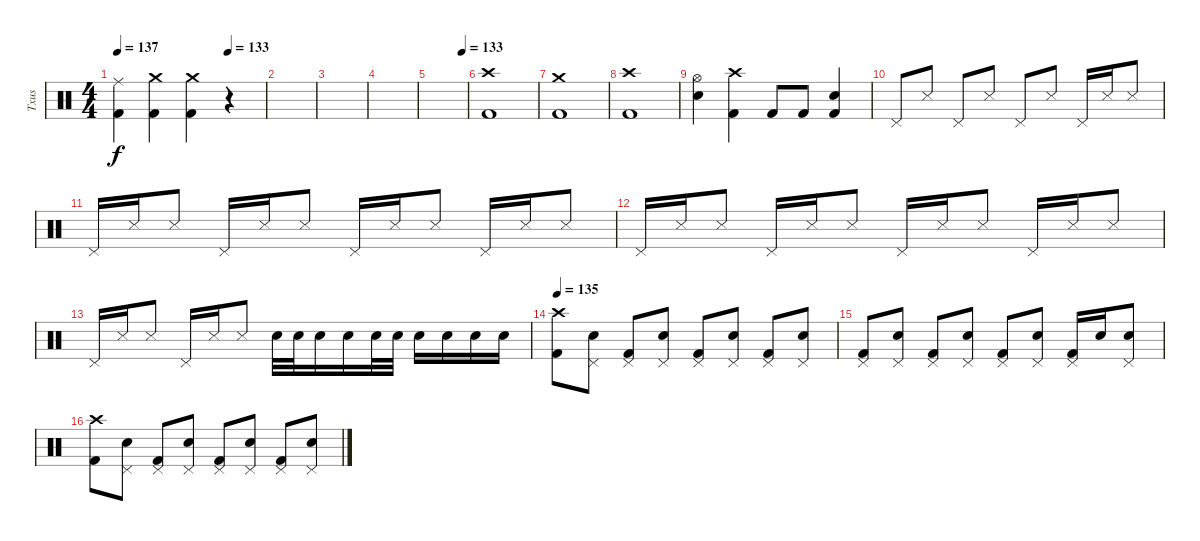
\track ("Txus" "Txus") {instrument percussion}
\staff {score}
\articulation defaults
\ts (4 4)
\tempo 137
\tempo (133 0.75)
\clef neutral
\ks c
("Kick (hit) 2" "Ride (middle)").4{dy f} ("Kick (hit) 2" "Crash medium (hit)").4 ("Kick (hit) 2" "Crash medium (hit)").4 r.4 |
\section ("" "")
|
|
|
\tempo (133 0.875)
|
("Kick (hit) 2" "Crash high (hit)").1 |
("Kick (hit) 2" "Crash medium (hit)").1 |
("Kick (hit) 2" "Crash high (hit)").1 |
("Electric Snare (hit)" "Hi-Hat (open)").4 ("Kick (hit) 2" "Crash high (hit)").4 "Kick (hit) 2".8 "Kick (hit) 2".8 ("Kick (hit) 2" "Electric Snare (hit)").4 |
\section ("" "")
"Pedal Hi-Hat (hit)".8 "Metronome (hit)".8 "Pedal Hi-Hat (hit)".8 "Metronome (hit)".8 "Pedal Hi-Hat (hit)".8 "Metronome (hit)".8 "Pedal Hi-Hat (hit)".16 "Snare (side stick) 3".16 "Snare (side stick) 3".8 |
"Pedal Hi-Hat (hit)".16 "Metronome (hit)".16 "Metronome (hit)".8 "Pedal Hi-Hat (hit)".16 "Metronome (hit)".16 "Metronome (hit)".8 "Pedal Hi-Hat (hit)".16 "Metronome (hit)".16 "Metronome (hit)".8 "Pedal Hi-Hat (hit)".16 "Snare (side stick) 3".16 "Snare (side stick) 3".8 |
"Pedal Hi-Hat (hit)".16 "Metronome (hit)".16 "Metronome (hit)".8 "Pedal Hi-Hat (hit)".16 "Metronome (hit)".16 "Metronome (hit)".8 "Pedal Hi-Hat (hit)".16 "Metronome (hit)".16 "Metronome (hit)".8 "Pedal Hi-Hat (hit)".16 "Snare (side stick) 3".16 "Snare (side stick) 3".8 |
"Pedal Hi-Hat (hit)".16 "Metronome (hit)".16 "Metronome (hit)".8 "Pedal Hi-Hat (hit)".16 "Metronome (hit)".16 "Metronome (hit)".8 "Electric Snare (hit)".32 "Electric Snare (hit)".32 "Electric Snare (hit)".16 "Electric Snare (hit)".16 "Electric Snare (hit)".32 "Electric Snare (hit)".32 "Electric Snare (hit)".16 "Electric Snare (hit)".16 "Electric Snare (hit)".16 "Electric Snare (hit)".16 |
\tempo 135
("Kick (hit) 2" "Crash high (hit)").8 ("Electric Snare (hit)" "Pedal Hi-Hat (hit)").8 ("Kick (hit) 2" "Pedal Hi-Hat (hit)").8 ("Electric Snare (hit)" "Pedal Hi-Hat (hit)").8 ("Kick (hit) 2" "Pedal Hi-Hat (hit)").8 ("Electric Snare (hit)" "Pedal Hi-Hat (hit)").8 ("Kick (hit) 2" "Pedal Hi-Hat (hit)").8 ("Electric Snare (hit)" "Pedal Hi-Hat (hit)").8 |
("Kick (hit) 2" "Pedal Hi-Hat (hit)").8 ("Electric Snare (hit)" "Pedal Hi-Hat (hit)").8 ("Kick (hit) 2" "Pedal Hi-Hat (hit)").8 ("Electric Snare (hit)" "Pedal Hi-Hat (hit)").8 ("Kick (hit) 2" "Pedal Hi-Hat (hit)").8 ("Electric Snare (hit)" "Pedal Hi-Hat (hit)").8 ("Kick (hit) 2" "Pedal Hi-Hat (hit)").16 "Electric Snare (hit)".16 ("Electric Snare (hit)" "Pedal Hi-Hat (hit)").8 |
("Kick (hit) 2" "Crash high (hit)").8 ("Electric Snare (hit)" "Pedal Hi-Hat (hit)").8 ("Kick (hit) 2" "Pedal Hi-Hat (hit)").8 ("Electric Snare (hit)" "Pedal Hi-Hat (hit)").8 ("Kick (hit) 2" "Pedal Hi-Hat (hit)").8 ("Electric Snare (hit)" "Pedal Hi-Hat (hit)").8 ("Kick (hit) 2" "Pedal Hi-Hat (hit)").8 ("Electric Snare (hit)" "Pedal Hi-Hat (hit)").8
